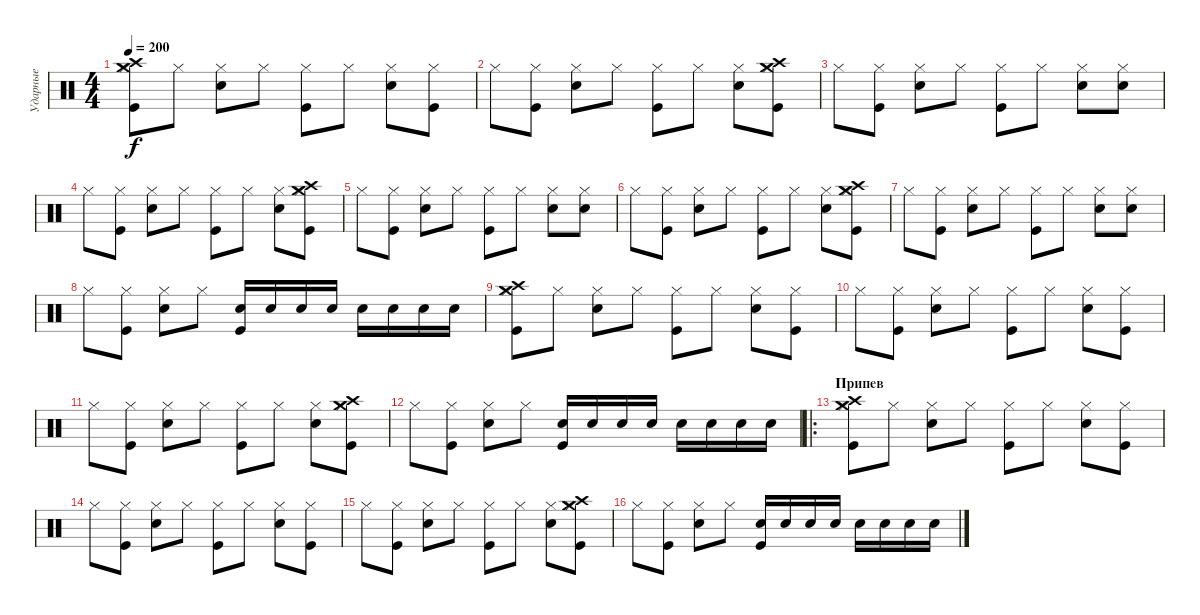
\track ("Ударные" "Ударные") {instrument percussion}
\staff {score}
\articulation defaults
\ts (4 4)
\tempo 200
\clef neutral
\ks c
("Hi-Hat (closed)" "Kick (hit)" "Crash high (hit)" "Crash medium (hit)").8{dy f} "Hi-Hat (closed)".8 ("Electric Snare (hit)" "Hi-Hat (closed)").8 "Hi-Hat (closed)".8 ("Hi-Hat (closed)" "Kick (hit)").8 "Hi-Hat (closed)".8 ("Hi-Hat (closed)" "Electric Snare (hit)").8 ("Hi-Hat (closed)" "Kick (hit)").8 |
"Hi-Hat (closed)".8 ("Hi-Hat (closed)" "Kick (hit)").8 ("Hi-Hat (closed)" "Electric Snare (hit)").8 "Hi-Hat (closed)".8 ("Kick (hit)" "Hi-Hat (closed)").8 "Hi-Hat (closed)".8 ("Electric Snare (hit)" "Hi-Hat (closed)").8 ("Crash medium (hit)" "Hi-Hat (closed)" "Kick (hit)" "Crash high (hit)").8 |
"Hi-Hat (closed)".8 ("Kick (hit)" "Hi-Hat (closed)").8 ("Electric Snare (hit)" "Hi-Hat (closed)").8 "Hi-Hat (closed)".8 ("Hi-Hat (closed)" "Kick (hit)").8 "Hi-Hat (closed)".8 ("Hi-Hat (closed)" "Electric Snare (hit)").8 ("Electric Snare (hit)" "Hi-Hat (closed)").8 |
"Hi-Hat (closed)".8 ("Hi-Hat (closed)" "Kick (hit)").8 ("Hi-Hat (closed)" "Electric Snare (hit)").8 "Hi-Hat (closed)".8 ("Kick (hit)" "Hi-Hat (closed)").8 "Hi-Hat (closed)".8 ("Electric Snare (hit)" "Hi-Hat (closed)").8 ("Crash medium (hit)" "Hi-Hat (closed)" "Kick (hit)" "Crash high (hit)").8 |
"Hi-Hat (closed)".8 ("Kick (hit)" "Hi-Hat (closed)").8 ("Electric Snare (hit)" "Hi-Hat (closed)").8 "Hi-Hat (closed)".8 ("Hi-Hat (closed)" "Kick (hit)").8 "Hi-Hat (closed)".8 ("Hi-Hat (closed)" "Electric Snare (hit)").8 ("Electric Snare (hit)" "Hi-Hat (closed)").8 |
"Hi-Hat (closed)".8 ("Kick (hit)" "Hi-Hat (closed)").8 ("Electric Snare (hit)" "Hi-Hat (closed)").8 "Hi-Hat (closed)".8 ("Hi-Hat (closed)" "Kick (hit)").8 "Hi-Hat (closed)".8 ("Hi-Hat (closed)" "Electric Snare (hit)").8 ("Crash medium (hit)" "Hi-Hat (closed)" "Kick (hit)" "Crash high (hit)").8 |
"Hi-Hat (closed)".8 ("Kick (hit)" "Hi-Hat (closed)").8 ("Electric Snare (hit)" "Hi-Hat (closed)").8 "Hi-Hat (closed)".8 ("Hi-Hat (closed)" "Kick (hit)").8 "Hi-Hat (closed)".8 ("Hi-Hat (closed)" "Electric Snare (hit)").8 ("Electric Snare (hit)" "Hi-Hat (closed)").8 |
"Hi-Hat (closed)".8 ("Kick (hit)" "Hi-Hat (closed)").8 ("Electric Snare (hit)" "Hi-Hat (closed)").8 "Hi-Hat (closed)".8 ("Electric Snare (hit)" "Kick (hit)").16 "Electric Snare (hit)".16 "Electric Snare (hit)".16 "Electric Snare (hit)".16 "Electric Snare (hit)".16 "Electric Snare (hit)".16 "Electric Snare (hit)".16 "Electric Snare (hit)".16 |
("Crash high (hit)" "Crash medium (hit)" "Hi-Hat (closed)" "Kick (hit)").8 "Hi-Hat (closed)".8 ("Electric Snare (hit)" "Hi-Hat (closed)").8 "Hi-Hat (closed)".8 ("Hi-Hat (closed)" "Kick (hit)").8 "Hi-Hat (closed)".8 ("Hi-Hat (closed)" "Electric Snare (hit)").8 ("Kick (hit)" "Hi-Hat (closed)").8 |
"Hi-Hat (closed)".8 ("Kick (hit)" "Hi-Hat (closed)").8 ("Electric Snare (hit)" "Hi-Hat (closed)").8 "Hi-Hat (closed)".8 ("Hi-Hat (closed)" "Kick (hit)").8 "Hi-Hat (closed)".8 ("Hi-Hat (closed)" "Electric Snare (hit)").8 ("Kick (hit)" "Hi-Hat (closed)").8 |
"Hi-Hat (closed)".8 ("Kick (hit)" "Hi-Hat (closed)").8 ("Electric Snare (hit)" "Hi-Hat (closed)").8 "Hi-Hat (closed)".8 ("Hi-Hat (closed)" "Kick (hit)").8 "Hi-Hat (closed)".8 ("Hi-Hat (closed)" "Electric Snare (hit)").8 ("Crash medium (hit)" "Hi-Hat (closed)" "Kick (hit)" "Crash high (hit)").8 |
"Hi-Hat (closed)".8 ("Kick (hit)" "Hi-Hat (closed)").8 ("Electric Snare (hit)" "Hi-Hat (closed)").8 "Hi-Hat (closed)".8 ("Electric Snare (hit)" "Kick (hit)").16 "Electric Snare (hit)".16 "Electric Snare (hit)".16 "Electric Snare (hit)".16 "Electric Snare (hit)".16 "Electric Snare (hit)".16 "Electric Snare (hit)".16 "Electric Snare (hit)".16 |
\ro
\section ("" "Припев")
("Crash high (hit)" "Crash medium (hit)" "Hi-Hat (closed)" "Kick (hit)").8 "Hi-Hat (closed)".8 ("Electric Snare (hit)" "Hi-Hat (closed)").8 "Hi-Hat (closed)".8 ("Hi-Hat (closed)" "Kick (hit)").8 "Hi-Hat (closed)".8 ("Hi-Hat (closed)" "Electric Snare (hit)").8 ("Kick (hit)" "Hi-Hat (closed)").8 |
"Hi-Hat (closed)".8 ("Kick (hit)" "Hi-Hat (closed)").8 ("Electric Snare (hit)" "Hi-Hat (closed)").8 "Hi-Hat (closed)".8 ("Hi-Hat (closed)" "Kick (hit)").8 "Hi-Hat (closed)".8 ("Hi-Hat (closed)" "Electric Snare (hit)").8 ("Kick (hit)" "Hi-Hat (closed)").8 |
"Hi-Hat (closed)".8 ("Kick (hit)" "Hi-Hat (closed)").8 ("Electric Snare (hit)" "Hi-Hat (closed)").8 "Hi-Hat (closed)".8 ("Hi-Hat (closed)" "Kick (hit)").8 "Hi-Hat (closed)".8 ("Hi-Hat (closed)" "Electric Snare (hit)").8 ("Crash medium (hit)" "Hi-Hat (closed)" "Kick (hit)" "Crash high (hit)").8 |
"Hi-Hat (closed)".8 ("Kick (hit)" "Hi-Hat (closed)").8 ("Electric Snare (hit)" "Hi-Hat (closed)").8 "Hi-Hat (closed)".8 ("Electric Snare (hit)" "Kick (hit)").16 "Electric Snare (hit)".16 "Electric Snare (hit)".16 "Electric Snare (hit)".16 "Electric Snare (hit)".16 "Electric Snare (hit)".16 "Electric Snare (hit)".16 "Electric Snare (hit)".16
